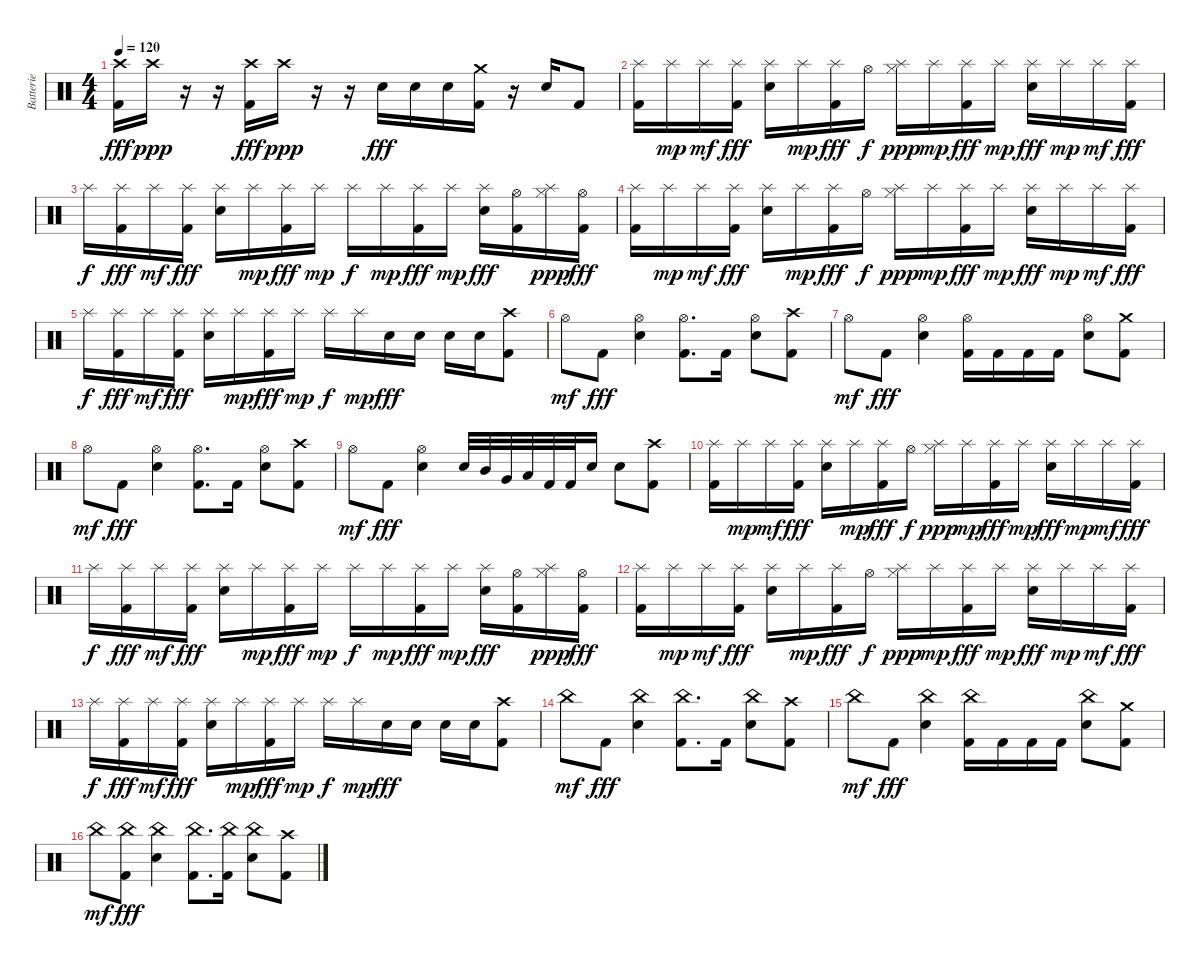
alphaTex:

\track ("Batterie" "Batterie") {instrument percussion}
\staff {score}
\articulation defaults
\ts (4 4)
\tempo 120
\clef neutral
\ks c
("Crash high (hit)" "Kick (hit) 2").16{dy fff} "Crash high (hit)".16{dy ppp} r.16 r.16 ("Crash high (hit)" "Kick (hit) 2").16{dy fff} "Crash high (hit)".16{dy ppp} r.16 r.16 "Electric Snare (hit)".16{dy fff} "Electric Snare (hit)".16 "Electric Snare (hit)".16 ("Crash medium (hit)" "Kick (hit) 2").16 r.16 "Electric Snare (hit)".16 "Kick (hit) 2".8 |
("Splash (hit)" "Kick (hit) 2").16 "Splash (hit)".16{dy mp} "Splash (hit)".16{dy mf} ("Splash (hit)" "Kick (hit) 2").16{dy fff} ("Splash (hit)" "Electric Snare (hit)").16 "Splash (hit)".16{dy mp} ("Splash (hit)" "Kick (hit) 2").16{dy fff} "Hi-Hat (open)".16{dy f} ("Splash (hit)" "Hi-Hat (closed)").16{dy ppp} "Splash (hit)".16{dy mp} ("Splash (hit)" "Kick (hit) 2").16{dy fff} "Splash (hit)".16{dy mp} ("Splash (hit)" "Electric Snare (hit)").16{dy fff} "Splash (hit)".16{dy mp} "Splash (hit)".16{dy mf} ("Splash (hit)" "Kick (hit) 2").16{dy fff} |
"Splash (hit)".16{dy f} ("Splash (hit)" "Kick (hit) 2").16{dy fff} "Splash (hit)".16{dy mf} ("Splash (hit)" "Kick (hit) 2").16{dy fff} ("Splash (hit)" "Electric Snare (hit)").16 "Splash (hit)".16{dy mp} ("Splash (hit)" "Kick (hit) 2").16{dy fff} "Splash (hit)".16{dy mp} "Splash (hit)".16{dy f} "Splash (hit)".16{dy mp} ("Splash (hit)" "Kick (hit) 2").16{dy fff} "Splash (hit)".16{dy mp} ("Splash (hit)" "Electric Snare (hit)").16{dy fff} ("Hi-Hat (open)" "Kick (hit) 2").16 ("Splash (hit)" "Hi-Hat (closed)").16{dy ppp} ("Hi-Hat (open)" "Kick (hit) 2").16{dy fff} |
("Splash (hit)" "Kick (hit) 2").16 "Splash (hit)".16{dy mp} "Splash (hit)".16{dy mf} ("Splash (hit)" "Kick (hit) 2").16{dy fff} ("Splash (hit)" "Electric Snare (hit)").16 "Splash (hit)".16{dy mp} ("Splash (hit)" "Kick (hit) 2").16{dy fff} "Hi-Hat (open)".16{dy f} ("Splash (hit)" "Hi-Hat (closed)").16{dy ppp} "Splash (hit)".16{dy mp} ("Splash (hit)" "Kick (hit) 2").16{dy fff} "Splash (hit)".16{dy mp} ("Splash (hit)" "Electric Snare (hit)").16{dy fff} "Splash (hit)".16{dy mp} "Splash (hit)".16{dy mf} ("Splash (hit)" "Kick (hit) 2").16{dy fff} |
"Splash (hit)".16{dy f} ("Splash (hit)" "Kick (hit) 2").16{dy fff} "Splash (hit)".16{dy mf} ("Splash (hit)" "Kick (hit) 2").16{dy fff} ("Splash (hit)" "Electric Snare (hit)").16 "Splash (hit)".16{dy mp} ("Splash (hit)" "Kick (hit) 2").16{dy fff} "Splash (hit)".16{dy mp} "Splash (hit)".16{dy f} "Splash (hit)".16{dy mp} "Electric Snare (hit)".16{dy fff} "Electric Snare (hit)".16 "Electric Snare (hit)".16 "Electric Snare (hit)".16 ("Crash high (hit)" "Kick (hit) 2").8 |
"Hi-Hat (open)".8{dy mf} "Kick (hit) 2".8{dy fff} ("Hi-Hat (open)" "Electric Snare (hit)").4 ("Hi-Hat (open)" "Kick (hit) 2").8{d} "Kick (hit) 2".16 ("Hi-Hat (open)" "Electric Snare (hit)").8 ("Crash high (hit)" "Kick (hit) 2").8 |
"Hi-Hat (open)".8{dy mf} "Kick (hit) 2".8{dy fff} ("Hi-Hat (open)" "Electric Snare (hit)").4 ("Hi-Hat (open)" "Kick (hit) 2").16 "Kick (hit) 2".16 "Kick (hit) 2".16 "Kick (hit) 2".16 ("Hi-Hat (open)" "Electric Snare (hit)").8 ("Crash medium (hit)" "Kick (hit) 2").8 |
"Hi-Hat (open)".8{dy mf} "Kick (hit) 2".8{dy fff} ("Hi-Hat (open)" "Electric Snare (hit)").4 ("Hi-Hat (open)" "Kick (hit) 2").8{d} "Kick (hit) 2".16 ("Hi-Hat (open)" "Electric Snare (hit)").8 ("Crash high (hit)" "Kick (hit) 2").8 |
"Hi-Hat (open)".8{dy mf} "Kick (hit) 2".8{dy fff} ("Hi-Hat (open)" "Electric Snare (hit)").4 "Electric Snare (hit)".32 "Mid Tom (hit)".32 "Very Low Tom (hit)".32 "Low Floor Tom (hit)".32 "Kick (hit) 2".32 "Kick (hit) 2".32 "Electric Snare (hit)".16 "Electric Snare (hit)".8 ("Crash high (hit)" "Kick (hit) 2").8 |
("Splash (hit)" "Kick (hit) 2").16 "Splash (hit)".16{dy mp} "Splash (hit)".16{dy mf} ("Splash (hit)" "Kick (hit) 2").16{dy fff} ("Splash (hit)" "Electric Snare (hit)").16 "Splash (hit)".16{dy mp} ("Splash (hit)" "Kick (hit) 2").16{dy fff} "Hi-Hat (open)".16{dy f} ("Splash (hit)" "Hi-Hat (closed)").16{dy ppp} "Splash (hit)".16{dy mp} ("Splash (hit)" "Kick (hit) 2").16{dy fff} "Splash (hit)".16{dy mp} ("Splash (hit)" "Electric Snare (hit)").16{dy fff} "Splash (hit)".16{dy mp} "Splash (hit)".16{dy mf} ("Splash (hit)" "Kick (hit) 2").16{dy fff} |
"Splash (hit)".16{dy f} ("Splash (hit)" "Kick (hit) 2").16{dy fff} "Splash (hit)".16{dy mf} ("Splash (hit)" "Kick (hit) 2").16{dy fff} ("Splash (hit)" "Electric Snare (hit)").16 "Splash (hit)".16{dy mp} ("Splash (hit)" "Kick (hit) 2").16{dy fff} "Splash (hit)".16{dy mp} "Splash (hit)".16{dy f} "Splash (hit)".16{dy mp} ("Splash (hit)" "Kick (hit) 2").16{dy fff} "Splash (hit)".16{dy mp} ("Splash (hit)" "Electric Snare (hit)").16{dy fff} ("Hi-Hat (open)" "Kick (hit) 2").16 ("Splash (hit)" "Hi-Hat (closed)").16{dy ppp} ("Hi-Hat (open)" "Kick (hit) 2").16{dy fff} |
("Splash (hit)" "Kick (hit) 2").16 "Splash (hit)".16{dy mp} "Splash (hit)".16{dy mf} ("Splash (hit)" "Kick (hit) 2").16{dy fff} ("Splash (hit)" "Electric Snare (hit)").16 "Splash (hit)".16{dy mp} ("Splash (hit)" "Kick (hit) 2").16{dy fff} "Hi-Hat (open)".16{dy f} ("Splash (hit)" "Hi-Hat (closed)").16{dy ppp} "Splash (hit)".16{dy mp} ("Splash (hit)" "Kick (hit) 2").16{dy fff} "Splash (hit)".16{dy mp} ("Splash (hit)" "Electric Snare (hit)").16{dy fff} "Splash (hit)".16{dy mp} "Splash (hit)".16{dy mf} ("Splash (hit)" "Kick (hit) 2").16{dy fff} |
"Splash (hit)".16{dy f} ("Splash (hit)" "Kick (hit) 2").16{dy fff} "Splash (hit)".16{dy mf} ("Splash (hit)" "Kick (hit) 2").16{dy fff} ("Splash (hit)" "Electric Snare (hit)").16 "Splash (hit)".16{dy mp} ("Splash (hit)" "Kick (hit) 2").16{dy fff} "Splash (hit)".16{dy mp} "Splash (hit)".16{dy f} "Splash (hit)".16{dy mp} "Electric Snare (hit)".16{dy fff} "Electric Snare (hit)".16 "Electric Snare (hit)".16 "Electric Snare (hit)".16 ("Crash high (hit)" "Kick (hit) 2").8 |
"China (hit)".8{dy mf} "Kick (hit) 2".8{dy fff} ("China (hit)" "Electric Snare (hit)").4 ("China (hit)" "Kick (hit) 2").8{d} "Kick (hit) 2".16 ("China (hit)" "Electric Snare (hit)").8 ("Crash high (hit)" "Kick (hit) 2").8 |
"China (hit)".8{dy mf} "Kick (hit) 2".8{dy fff} ("China (hit)" "Electric Snare (hit)").4 ("China (hit)" "Kick (hit) 2").16 "Kick (hit) 2".16 "Kick (hit) 2".16 "Kick (hit) 2".16 ("China (hit)" "Electric Snare (hit)").8 ("Crash medium (hit)" "Kick (hit) 2").8 |
"China (hit)".8{dy mf} ("China (hit)" "Kick (hit) 2").8{dy fff} ("China (hit)" "Electric Snare (hit)").4 ("China (hit)" "Kick (hit) 2").8{d} ("China (hit)" "Kick (hit) 2").16 ("China (hit)" "Electric Snare (hit)").8 ("Crash high (hit)" "Kick (hit) 2").8
